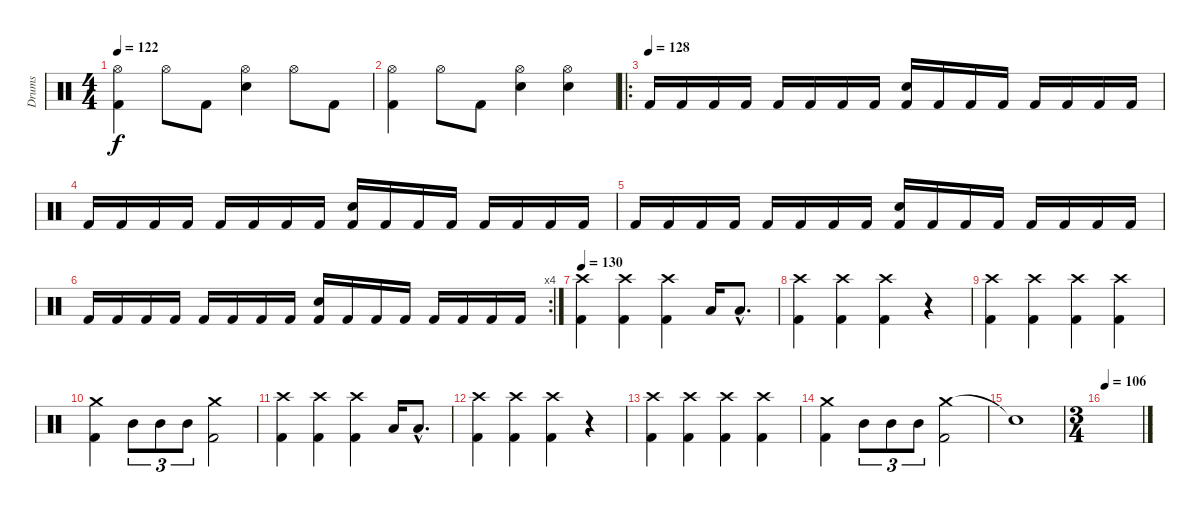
\track ("Drums" "Drums") {instrument percussion}
\staff {score}
\articulation defaults
\ts (4 4)
\tempo 122
\clef neutral
\ks c
("Hi-Hat (open)" "Kick (hit) 2").4{dy f} "Hi-Hat (open)".8 "Kick (hit) 2".8 ("Hi-Hat (open)" "Snare (hit) 2").4 "Hi-Hat (open)".8 "Kick (hit) 2".8 |
("Hi-Hat (open)" "Kick (hit) 2").4 "Hi-Hat (open)".8 "Kick (hit) 2".8 ("Hi-Hat (open)" "Snare (hit) 2").4 ("Hi-Hat (open)" "Snare (hit) 2").4 |
\ro
\tempo (128)
"Kick (hit) 2".16 "Kick (hit) 2".16 "Kick (hit) 2".16 "Kick (hit) 2".16 "Kick (hit) 2".16 "Kick (hit) 2".16 "Kick (hit) 2".16 "Kick (hit) 2".16 ("Kick (hit) 2" "Snare (hit) 2").16 "Kick (hit) 2".16 "Kick (hit) 2".16 "Kick (hit) 2".16 "Kick (hit) 2".16 "Kick (hit) 2".16 "Kick (hit) 2".16 "Kick (hit) 2".16 |
"Kick (hit) 2".16 "Kick (hit) 2".16 "Kick (hit) 2".16 "Kick (hit) 2".16 "Kick (hit) 2".16 "Kick (hit) 2".16 "Kick (hit) 2".16 "Kick (hit) 2".16 ("Kick (hit) 2" "Snare (hit) 2").16 "Kick (hit) 2".16 "Kick (hit) 2".16 "Kick (hit) 2".16 "Kick (hit) 2".16 "Kick (hit) 2".16 "Kick (hit) 2".16 "Kick (hit) 2".16 |
"Kick (hit) 2".16 "Kick (hit) 2".16 "Kick (hit) 2".16 "Kick (hit) 2".16 "Kick (hit) 2".16 "Kick (hit) 2".16 "Kick (hit) 2".16 "Kick (hit) 2".16 ("Kick (hit) 2" "Snare (hit) 2").16 "Kick (hit) 2".16 "Kick (hit) 2".16 "Kick (hit) 2".16 "Kick (hit) 2".16 "Kick (hit) 2".16 "Kick (hit) 2".16 "Kick (hit) 2".16 |
\rc 4 "Kick (hit) 2".16 "Kick (hit) 2".16 "Kick (hit) 2".16 "Kick (hit) 2".16 "Kick (hit) 2".16 "Kick (hit) 2".16 "Kick (hit) 2".16 "Kick (hit) 2".16
("Kick (hit) 2" "Snare (hit) 2").16 "Kick (hit) 2".16 "Kick (hit) 2".16 "Kick (hit) 2".16 "Kick (hit) 2".16 "Kick (hit) 2".16 "Kick (hit) 2".16 "Kick (hit) 2".16 |
\tempo 130
("Crash high (hit)" "Kick (hit) 2").4 ("Crash high (hit)" "Kick (hit) 2").4 ("Crash high (hit)" "Kick (hit) 2").4 "Low Tom (hit)".16 "Low Tom (hit)"{hac}.8{d} |
("Crash high (hit)" "Kick (hit) 2").4 ("Crash high (hit)" "Kick (hit) 2").4 ("Crash high (hit)" "Kick (hit) 2").4 r.4 |
("Crash high (hit)" "Kick (hit) 2").4 ("Crash high (hit)" "Kick (hit) 2").4 ("Crash high (hit)" "Kick (hit) 2").4 ("Crash high (hit)" "Kick (hit) 2").4 |
("Crash medium (hit)" "Kick (hit) 2").4 "Mid Tom (hit)".8{tu (3 2)} "Mid Tom (hit)".8{tu (3 2)} "Mid Tom (hit)".8{tu (3 2)} ("Crash medium (hit)" "Kick (hit) 2").2 |
("Crash high (hit)" "Kick (hit) 2").4 ("Crash high (hit)" "Kick (hit) 2").4 ("Crash high (hit)" "Kick (hit) 2").4 "Low Tom (hit)".16 "Low Tom (hit)"{hac}.8{d} |
("Crash high (hit)" "Kick (hit) 2").4 ("Crash high (hit)" "Kick (hit) 2").4 ("Crash high (hit)" "Kick (hit) 2").4 r.4 |
("Crash high (hit)" "Kick (hit) 2").4 ("Crash high (hit)" "Kick (hit) 2").4 ("Crash high (hit)" "Kick (hit) 2").4 ("Crash high (hit)" "Kick (hit) 2").4 |
("Crash medium (hit)" "Kick (hit) 2").4 "Mid Tom (hit)".8{tu (3 2)} "Mid Tom (hit)".8{tu (3 2)} "Mid Tom (hit)".8{tu (3 2)} ("Crash medium (hit)" "Kick (hit) 2").2 |
"Snare (hit)"{t}.1 |
\ts (3 4)
\tempo 106
